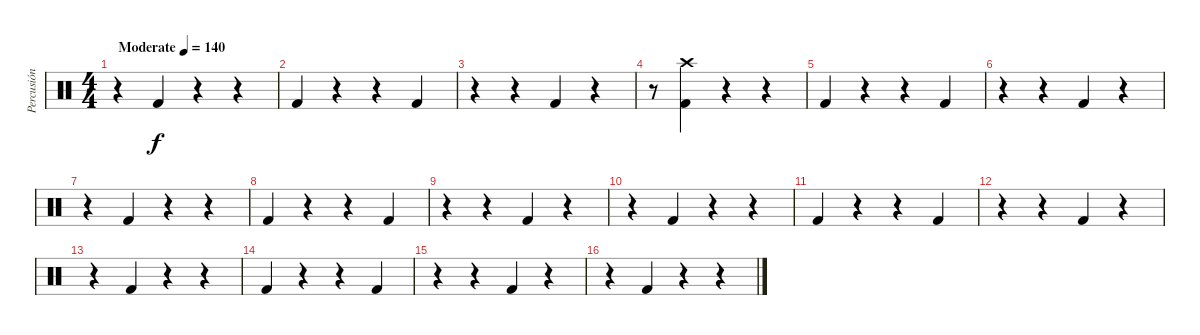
\track ("Percusión" "Percusión") {instrument percussion}
\staff {score}
\articulation defaults
\ts (4 4)
\tempo (140 "Moderate")
\clef neutral
\ks c
r.4{dy f} "Kick (hit) 2".4 r.4 r.4 |
"Kick (hit) 2".4 r.4 r.4 "Kick (hit) 2".4 |
r.4 r.4 "Kick (hit) 2".4 r.4 |
r.8 ("Kick (hit) 2" "Crash high (hit)").4 r.4 r.4 |
"Kick (hit) 2".4 r.4 r.4 "Kick (hit) 2".4 |
r.4 r.4 "Kick (hit) 2".4 r.4 |
r.4 "Kick (hit) 2".4 r.4 r.4 |
"Kick (hit) 2".4 r.4 r.4 "Kick (hit) 2".4 |
r.4 r.4 "Kick (hit) 2".4 r.4 |
r.4 "Kick (hit) 2".4 r.4 r.4 |
"Kick (hit) 2".4 r.4 r.4 "Kick (hit) 2".4 |
r.4 r.4 "Kick (hit) 2".4 r.4 |
r.4 "Kick (hit) 2".4 r.4 r.4 |
"Kick (hit) 2".4 r.4 r.4 "Kick (hit) 2".4 |
r.4 r.4 "Kick (hit) 2".4 r.4 |
r.4 "Kick (hit) 2".4 r.4 r.4
